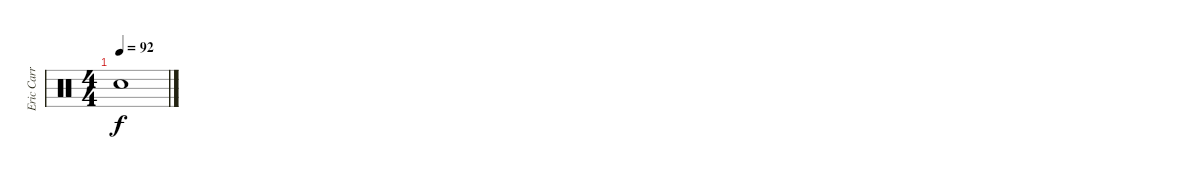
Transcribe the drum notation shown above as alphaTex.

\track ("Eric Carr" "Eric Carr") {instrument percussion}
\staff {score}
\articulation defaults
\ts (4 4)
\tempo 92
\clef neutral
\ks c "Snare (hit)"{t}.1{dy f}
